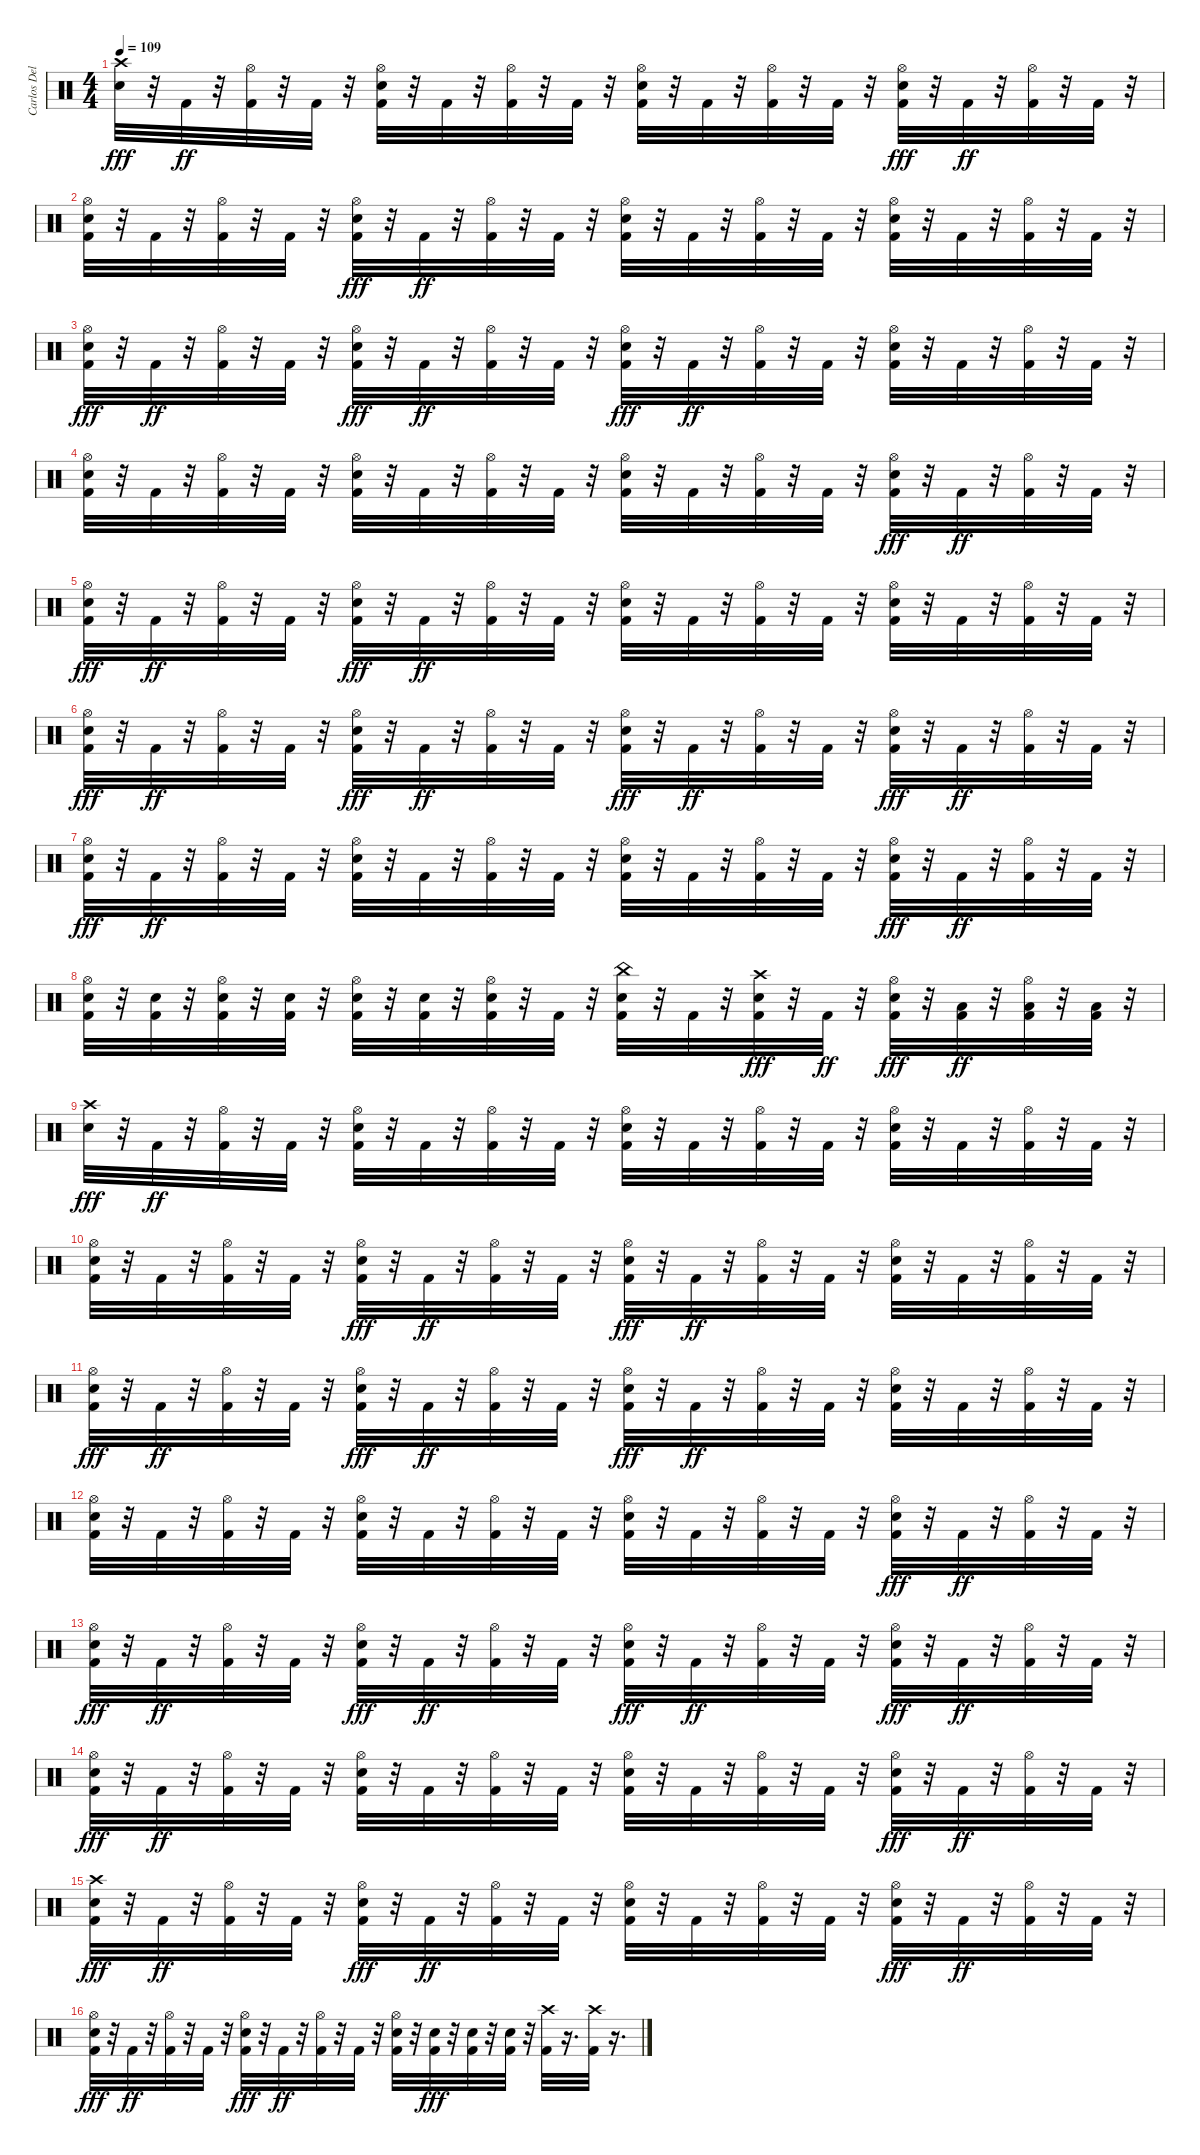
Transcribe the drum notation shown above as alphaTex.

\track ("Carlos Delgado" "Carlos Del") {instrument percussion}
\staff {score}
\articulation defaults
\ts (4 4)
\tempo 109
\clef neutral
\ks c
("Electric Snare (hit)" "Crash high (hit)").32{dy fff} r.32 "Kick (hit) 2".32{dy ff} r.32 ("Kick (hit) 2" "Hi-Hat (open)").32 r.32 "Kick (hit) 2".32 r.32 ("Hi-Hat (open)" "Electric Snare (hit)" "Kick (hit) 2").32 r.32 "Kick (hit) 2".32 r.32 ("Kick (hit) 2" "Hi-Hat (open)").32 r.32 "Kick (hit) 2".32 r.32 ("Electric Snare (hit)" "Kick (hit) 2" "Hi-Hat (open)").32 r.32 "Kick (hit) 2".32 r.32 ("Kick (hit) 2" "Hi-Hat (open)").32 r.32 "Kick (hit) 2".32 r.32 ("Hi-Hat (open)" "Kick (hit) 2" "Electric Snare (hit)").32{dy fff} r.32 "Kick (hit) 2".32{dy ff} r.32 ("Hi-Hat (open)" "Kick (hit) 2").32 r.32 "Kick (hit) 2".32 r.32 |
("Electric Snare (hit)" "Hi-Hat (open)" "Kick (hit) 2").32 r.32 "Kick (hit) 2".32 r.32 ("Kick (hit) 2" "Hi-Hat (open)").32 r.32 "Kick (hit) 2".32 r.32 ("Kick (hit) 2" "Hi-Hat (open)" "Electric Snare (hit)").32{dy fff} r.32 "Kick (hit) 2".32{dy ff} r.32 ("Hi-Hat (open)" "Kick (hit) 2").32 r.32 "Kick (hit) 2".32 r.32 ("Electric Snare (hit)" "Hi-Hat (open)" "Kick (hit) 2").32 r.32 "Kick (hit) 2".32 r.32 ("Kick (hit) 2" "Hi-Hat (open)").32 r.32 "Kick (hit) 2".32 r.32 ("Electric Snare (hit)" "Hi-Hat (open)" "Kick (hit) 2").32 r.32 "Kick (hit) 2".32 r.32 ("Kick (hit) 2" "Hi-Hat (open)").32 r.32 "Kick (hit) 2".32 r.32 |
("Electric Snare (hit)" "Kick (hit) 2" "Hi-Hat (open)").32{dy fff} r.32 "Kick (hit) 2".32{dy ff} r.32 ("Hi-Hat (open)" "Kick (hit) 2").32 r.32 "Kick (hit) 2".32 r.32 ("Hi-Hat (open)" "Kick (hit) 2" "Electric Snare (hit)").32{dy fff} r.32 "Kick (hit) 2".32{dy ff} r.32 ("Hi-Hat (open)" "Kick (hit) 2").32 r.32 "Kick (hit) 2".32 r.32 ("Kick (hit) 2" "Electric Snare (hit)" "Hi-Hat (open)").32{dy fff} r.32 "Kick (hit) 2".32{dy ff} r.32 ("Kick (hit) 2" "Hi-Hat (open)").32 r.32 "Kick (hit) 2".32 r.32 ("Hi-Hat (open)" "Electric Snare (hit)" "Kick (hit) 2").32 r.32 "Kick (hit) 2".32 r.32 ("Kick (hit) 2" "Hi-Hat (open)").32 r.32 "Kick (hit) 2".32 r.32 |
("Electric Snare (hit)" "Hi-Hat (open)" "Kick (hit) 2").32 r.32 "Kick (hit) 2".32 r.32 ("Hi-Hat (open)" "Kick (hit) 2").32 r.32 "Kick (hit) 2".32 r.32 ("Electric Snare (hit)" "Hi-Hat (open)" "Kick (hit) 2").32 r.32 "Kick (hit) 2".32 r.32 ("Kick (hit) 2" "Hi-Hat (open)").32 r.32 "Kick (hit) 2".32 r.32 ("Hi-Hat (open)" "Electric Snare (hit)" "Kick (hit) 2").32 r.32 "Kick (hit) 2".32 r.32 ("Kick (hit) 2" "Hi-Hat (open)").32 r.32 "Kick (hit) 2".32 r.32 ("Hi-Hat (open)" "Kick (hit) 2" "Electric Snare (hit)").32{dy fff} r.32 "Kick (hit) 2".32{dy ff} r.32 ("Hi-Hat (open)" "Kick (hit) 2").32 r.32 "Kick (hit) 2".32 r.32 |
("Kick (hit) 2" "Electric Snare (hit)" "Hi-Hat (open)").32{dy fff} r.32 "Kick (hit) 2".32{dy ff} r.32 ("Hi-Hat (open)" "Kick (hit) 2").32 r.32 "Kick (hit) 2".32 r.32 ("Hi-Hat (open)" "Kick (hit) 2" "Electric Snare (hit)").32{dy fff} r.32 "Kick (hit) 2".32{dy ff} r.32 ("Hi-Hat (open)" "Kick (hit) 2").32 r.32 "Kick (hit) 2".32 r.32 ("Hi-Hat (open)" "Electric Snare (hit)" "Kick (hit) 2").32 r.32 "Kick (hit) 2".32 r.32 ("Hi-Hat (open)" "Kick (hit) 2").32 r.32 "Kick (hit) 2".32 r.32 ("Electric Snare (hit)" "Kick (hit) 2" "Hi-Hat (open)").32 r.32 "Kick (hit) 2".32 r.32 ("Kick (hit) 2" "Hi-Hat (open)").32 r.32 "Kick (hit) 2".32 r.32 |
("Kick (hit) 2" "Hi-Hat (open)" "Electric Snare (hit)").32{dy fff} r.32 "Kick (hit) 2".32{dy ff} r.32 ("Kick (hit) 2" "Hi-Hat (open)").32 r.32 "Kick (hit) 2".32 r.32 ("Kick (hit) 2" "Hi-Hat (open)" "Electric Snare (hit)").32{dy fff} r.32 "Kick (hit) 2".32{dy ff} r.32 ("Hi-Hat (open)" "Kick (hit) 2").32 r.32 "Kick (hit) 2".32 r.32 ("Hi-Hat (open)" "Kick (hit) 2" "Electric Snare (hit)").32{dy fff} r.32 "Kick (hit) 2".32{dy ff} r.32 ("Hi-Hat (open)" "Kick (hit) 2").32 r.32 "Kick (hit) 2".32 r.32 ("Kick (hit) 2" "Electric Snare (hit)" "Hi-Hat (open)").32{dy fff} r.32 "Kick (hit) 2".32{dy ff} r.32 ("Hi-Hat (open)" "Kick (hit) 2").32 r.32 "Kick (hit) 2".32 r.32 |
("Electric Snare (hit)" "Kick (hit) 2" "Hi-Hat (open)").32{dy fff} r.32 "Kick (hit) 2".32{dy ff} r.32 ("Kick (hit) 2" "Hi-Hat (open)").32 r.32 "Kick (hit) 2".32 r.32 ("Hi-Hat (open)" "Electric Snare (hit)" "Kick (hit) 2").32 r.32 "Kick (hit) 2".32 r.32 ("Hi-Hat (open)" "Kick (hit) 2").32 r.32 "Kick (hit) 2".32 r.32 ("Hi-Hat (open)" "Electric Snare (hit)" "Kick (hit) 2").32 r.32 "Kick (hit) 2".32 r.32 ("Kick (hit) 2" "Hi-Hat (open)").32 r.32 "Kick (hit) 2".32 r.32 ("Kick (hit) 2" "Hi-Hat (open)" "Electric Snare (hit)").32{dy fff} r.32 "Kick (hit) 2".32{dy ff} r.32 ("Kick (hit) 2" "Hi-Hat (open)").32 r.32 "Kick (hit) 2".32 r.32 |
("Electric Snare (hit)" "Hi-Hat (open)" "Kick (hit) 2").32 r.32 ("Electric Snare (hit)" "Kick (hit) 2").32 r.32 ("Electric Snare (hit)" "Hi-Hat (open)" "Kick (hit) 2").32 r.32 ("Electric Snare (hit)" "Kick (hit) 2").32 r.32 ("Electric Snare (hit)" "Hi-Hat (open)" "Kick (hit) 2").32 r.32 ("Electric Snare (hit)" "Kick (hit) 2").32 r.32 ("Electric Snare (hit)" "Hi-Hat (open)" "Kick (hit) 2").32 r.32 "Kick (hit) 2".32 r.32 ("Electric Snare (hit)" "Kick (hit) 2" "China (hit)").32 r.32 "Kick (hit) 2".32 r.32 ("Kick (hit) 2" "Crash high (hit)" "Electric Snare (hit)").32{dy fff} r.32 "Kick (hit) 2".32{dy ff} r.32 ("Kick (hit) 2" "Electric Snare (hit)" "Hi-Hat (open)").32{dy fff} r.32 ("Kick (hit) 2" "Low Floor Tom (hit)").32{dy ff} r.32 ("Hi-Hat (open)" "Kick (hit) 2" "Low Floor Tom (hit)").32 r.32 ("Low Floor Tom (hit)" "Kick (hit) 2").32 r.32 |
("Electric Snare (hit)" "Crash high (hit)").32{dy fff} r.32 "Kick (hit) 2".32{dy ff} r.32 ("Kick (hit) 2" "Hi-Hat (open)").32 r.32 "Kick (hit) 2".32 r.32 ("Hi-Hat (open)" "Electric Snare (hit)" "Kick (hit) 2").32 r.32 "Kick (hit) 2".32 r.32 ("Kick (hit) 2" "Hi-Hat (open)").32 r.32 "Kick (hit) 2".32 r.32 ("Electric Snare (hit)" "Hi-Hat (open)" "Kick (hit) 2").32 r.32 "Kick (hit) 2".32 r.32 ("Kick (hit) 2" "Hi-Hat (open)").32 r.32 "Kick (hit) 2".32 r.32 ("Hi-Hat (open)" "Electric Snare (hit)" "Kick (hit) 2").32 r.32 "Kick (hit) 2".32 r.32 ("Kick (hit) 2" "Hi-Hat (open)").32 r.32 "Kick (hit) 2".32 r.32 |
("Electric Snare (hit)" "Hi-Hat (open)" "Kick (hit) 2").32 r.32 "Kick (hit) 2".32 r.32 ("Hi-Hat (open)" "Kick (hit) 2").32 r.32 "Kick (hit) 2".32 r.32 ("Kick (hit) 2" "Hi-Hat (open)" "Electric Snare (hit)").32{dy fff} r.32 "Kick (hit) 2".32{dy ff} r.32 ("Kick (hit) 2" "Hi-Hat (open)").32 r.32 "Kick (hit) 2".32 r.32 ("Hi-Hat (open)" "Kick (hit) 2" "Electric Snare (hit)").32{dy fff} r.32 "Kick (hit) 2".32{dy ff} r.32 ("Hi-Hat (open)" "Kick (hit) 2").32 r.32 "Kick (hit) 2".32 r.32 ("Electric Snare (hit)" "Kick (hit) 2" "Hi-Hat (open)").32 r.32 "Kick (hit) 2".32 r.32 ("Hi-Hat (open)" "Kick (hit) 2").32 r.32 "Kick (hit) 2".32 r.32 |
("Hi-Hat (open)" "Kick (hit) 2" "Electric Snare (hit)").32{dy fff} r.32 "Kick (hit) 2".32{dy ff} r.32 ("Kick (hit) 2" "Hi-Hat (open)").32 r.32 "Kick (hit) 2".32 r.32 ("Kick (hit) 2" "Hi-Hat (open)" "Electric Snare (hit)").32{dy fff} r.32 "Kick (hit) 2".32{dy ff} r.32 ("Hi-Hat (open)" "Kick (hit) 2").32 r.32 "Kick (hit) 2".32 r.32 ("Kick (hit) 2" "Electric Snare (hit)" "Hi-Hat (open)").32{dy fff} r.32 "Kick (hit) 2".32{dy ff} r.32 ("Hi-Hat (open)" "Kick (hit) 2").32 r.32 "Kick (hit) 2".32 r.32 ("Hi-Hat (open)" "Electric Snare (hit)" "Kick (hit) 2").32 r.32 "Kick (hit) 2".32 r.32 ("Kick (hit) 2" "Hi-Hat (open)").32 r.32 "Kick (hit) 2".32 r.32 |
("Electric Snare (hit)" "Kick (hit) 2" "Hi-Hat (open)").32 r.32 "Kick (hit) 2".32 r.32 ("Kick (hit) 2" "Hi-Hat (open)").32 r.32 "Kick (hit) 2".32 r.32 ("Hi-Hat (open)" "Electric Snare (hit)" "Kick (hit) 2").32 r.32 "Kick (hit) 2".32 r.32 ("Hi-Hat (open)" "Kick (hit) 2").32 r.32 "Kick (hit) 2".32 r.32 ("Electric Snare (hit)" "Hi-Hat (open)" "Kick (hit) 2").32 r.32 "Kick (hit) 2".32 r.32 ("Kick (hit) 2" "Hi-Hat (open)").32 r.32 "Kick (hit) 2".32 r.32 ("Hi-Hat (open)" "Kick (hit) 2" "Electric Snare (hit)").32{dy fff} r.32 "Kick (hit) 2".32{dy ff} r.32 ("Kick (hit) 2" "Hi-Hat (open)").32 r.32 "Kick (hit) 2".32 r.32 |
("Kick (hit) 2" "Hi-Hat (open)" "Electric Snare (hit)").32{dy fff} r.32 "Kick (hit) 2".32{dy ff} r.32 ("Kick (hit) 2" "Hi-Hat (open)").32 r.32 "Kick (hit) 2".32 r.32 ("Kick (hit) 2" "Electric Snare (hit)" "Hi-Hat (open)").32{dy fff} r.32 "Kick (hit) 2".32{dy ff} r.32 ("Kick (hit) 2" "Hi-Hat (open)").32 r.32 "Kick (hit) 2".32 r.32 ("Kick (hit) 2" "Electric Snare (hit)" "Hi-Hat (open)").32{dy fff} r.32 "Kick (hit) 2".32{dy ff} r.32 ("Hi-Hat (open)" "Kick (hit) 2").32 r.32 "Kick (hit) 2".32 r.32 ("Hi-Hat (open)" "Kick (hit) 2" "Electric Snare (hit)").32{dy fff} r.32 "Kick (hit) 2".32{dy ff} r.32 ("Hi-Hat (open)" "Kick (hit) 2").32 r.32 "Kick (hit) 2".32 r.32 |
("Kick (hit) 2" "Electric Snare (hit)" "Hi-Hat (open)").32{dy fff} r.32 "Kick (hit) 2".32{dy ff} r.32 ("Kick (hit) 2" "Hi-Hat (open)").32 r.32 "Kick (hit) 2".32 r.32 ("Hi-Hat (open)" "Electric Snare (hit)" "Kick (hit) 2").32 r.32 "Kick (hit) 2".32 r.32 ("Kick (hit) 2" "Hi-Hat (open)").32 r.32 "Kick (hit) 2".32 r.32 ("Hi-Hat (open)" "Electric Snare (hit)" "Kick (hit) 2").32 r.32 "Kick (hit) 2".32 r.32 ("Kick (hit) 2" "Hi-Hat (open)").32 r.32 "Kick (hit) 2".32 r.32 ("Hi-Hat (open)" "Kick (hit) 2" "Electric Snare (hit)").32{dy fff} r.32 "Kick (hit) 2".32{dy ff} r.32 ("Kick (hit) 2" "Hi-Hat (open)").32 r.32 "Kick (hit) 2".32 r.32 |
("Electric Snare (hit)" "Kick (hit) 2" "Crash high (hit)").32{dy fff} r.32 "Kick (hit) 2".32{dy ff} r.32 ("Kick (hit) 2" "Hi-Hat (open)").32 r.32 "Kick (hit) 2".32 r.32 ("Hi-Hat (open)" "Kick (hit) 2" "Electric Snare (hit)").32{dy fff} r.32 "Kick (hit) 2".32{dy ff} r.32 ("Kick (hit) 2" "Hi-Hat (open)").32 r.32 "Kick (hit) 2".32 r.32 ("Electric Snare (hit)" "Hi-Hat (open)" "Kick (hit) 2").32 r.32 "Kick (hit) 2".32 r.32 ("Kick (hit) 2" "Hi-Hat (open)").32 r.32 "Kick (hit) 2".32 r.32 ("Kick (hit) 2" "Electric Snare (hit)" "Hi-Hat (open)").32{dy fff} r.32 "Kick (hit) 2".32{dy ff} r.32 ("Hi-Hat (open)" "Kick (hit) 2").32 r.32 "Kick (hit) 2".32 r.32 |
("Kick (hit) 2" "Electric Snare (hit)" "Hi-Hat (open)").32{dy fff} r.32 "Kick (hit) 2".32{dy ff} r.32 ("Hi-Hat (open)" "Kick (hit) 2").32 r.32 "Kick (hit) 2".32 r.32 ("Kick (hit) 2" "Hi-Hat (open)" "Electric Snare (hit)").32{dy fff} r.32 "Kick (hit) 2".32{dy ff} r.32 ("Kick (hit) 2" "Hi-Hat (open)").32 r.32 "Kick (hit) 2".32 r.32 ("Electric Snare (hit)" "Hi-Hat (open)" "Kick (hit) 2").32 r.32 ("Kick (hit) 2" "Electric Snare (hit)").32{dy fff} r.32 ("Kick (hit) 2" "Electric Snare (hit)").32 r.32 ("Kick (hit) 2" "Electric Snare (hit)").32 r.32 ("Kick (hit) 2" "Crash high (hit)").32 r.16{d} ("Kick (hit) 2" "Crash high (hit)").32 r.16{d}
